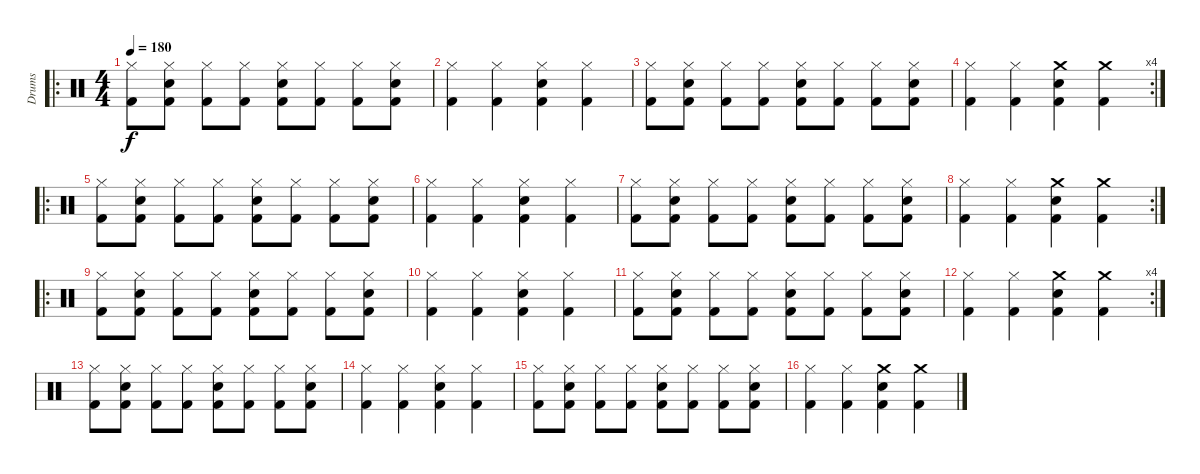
\track ("Drums" "Drums") {instrument percussion}
\staff {score}
\articulation defaults
\ro
\ts (4 4)
\tempo 180
\clef neutral
\ks c
("Hi-Hat (closed)" "Kick (hit) 2").8{dy f} ("Hi-Hat (closed)" "Snare (hit) 2" "Kick (hit) 2").8 ("Hi-Hat (closed)" "Kick (hit) 2").8 ("Hi-Hat (closed)" "Kick (hit) 2").8 ("Hi-Hat (closed)" "Snare (hit) 2" "Kick (hit) 2").8 ("Hi-Hat (closed)" "Kick (hit) 2").8 ("Hi-Hat (closed)" "Kick (hit) 2").8 ("Hi-Hat (closed)" "Snare (hit) 2" "Kick (hit) 2").8 |
("Hi-Hat (closed)" "Kick (hit) 2").4 ("Hi-Hat (closed)" "Kick (hit) 2").4 ("Hi-Hat (closed)" "Snare (hit) 2" "Kick (hit) 2").4 ("Hi-Hat (closed)" "Kick (hit) 2").4 |
("Hi-Hat (closed)" "Kick (hit) 2").8 ("Hi-Hat (closed)" "Snare (hit) 2" "Kick (hit) 2").8 ("Hi-Hat (closed)" "Kick (hit) 2").8 ("Hi-Hat (closed)" "Kick (hit) 2").8 ("Hi-Hat (closed)" "Snare (hit) 2" "Kick (hit) 2").8 ("Hi-Hat (closed)" "Kick (hit) 2").8 ("Hi-Hat (closed)" "Kick (hit) 2").8 ("Hi-Hat (closed)" "Snare (hit) 2" "Kick (hit) 2").8 |
\rc 4
("Hi-Hat (closed)" "Kick (hit) 2").4 ("Hi-Hat (closed)" "Kick (hit) 2").4 ("Crash medium (hit)" "Snare (hit) 2" "Kick (hit) 2").4 ("Crash medium (hit)" "Kick (hit) 2").4 |
\ro
("Hi-Hat (closed)" "Kick (hit) 2").8 ("Hi-Hat (closed)" "Snare (hit) 2" "Kick (hit) 2").8 ("Hi-Hat (closed)" "Kick (hit) 2").8 ("Hi-Hat (closed)" "Kick (hit) 2").8 ("Hi-Hat (closed)" "Snare (hit) 2" "Kick (hit) 2").8 ("Hi-Hat (closed)" "Kick (hit) 2").8 ("Hi-Hat (closed)" "Kick (hit) 2").8 ("Hi-Hat (closed)" "Snare (hit) 2" "Kick (hit) 2").8 |
("Hi-Hat (closed)" "Kick (hit) 2").4 ("Hi-Hat (closed)" "Kick (hit) 2").4 ("Hi-Hat (closed)" "Snare (hit) 2" "Kick (hit) 2").4 ("Hi-Hat (closed)" "Kick (hit) 2").4 |
("Hi-Hat (closed)" "Kick (hit) 2").8 ("Hi-Hat (closed)" "Snare (hit) 2" "Kick (hit) 2").8 ("Hi-Hat (closed)" "Kick (hit) 2").8 ("Hi-Hat (closed)" "Kick (hit) 2").8 ("Hi-Hat (closed)" "Snare (hit) 2" "Kick (hit) 2").8 ("Hi-Hat (closed)" "Kick (hit) 2").8 ("Hi-Hat (closed)" "Kick (hit) 2").8 ("Hi-Hat (closed)" "Snare (hit) 2" "Kick (hit) 2").8 |
\rc 2
("Hi-Hat (closed)" "Kick (hit) 2").4 ("Hi-Hat (closed)" "Kick (hit) 2").4 ("Crash medium (hit)" "Snare (hit) 2" "Kick (hit) 2").4 ("Crash medium (hit)" "Kick (hit) 2").4 |
\ro
("Hi-Hat (closed)" "Kick (hit) 2").8 ("Hi-Hat (closed)" "Snare (hit) 2" "Kick (hit) 2").8 ("Hi-Hat (closed)" "Kick (hit) 2").8 ("Hi-Hat (closed)" "Kick (hit) 2").8 ("Hi-Hat (closed)" "Snare (hit) 2" "Kick (hit) 2").8 ("Hi-Hat (closed)" "Kick (hit) 2").8 ("Hi-Hat (closed)" "Kick (hit) 2").8 ("Hi-Hat (closed)" "Snare (hit) 2" "Kick (hit) 2").8 |
("Hi-Hat (closed)" "Kick (hit) 2").4 ("Hi-Hat (closed)" "Kick (hit) 2").4 ("Hi-Hat (closed)" "Snare (hit) 2" "Kick (hit) 2").4 ("Hi-Hat (closed)" "Kick (hit) 2").4 |
("Hi-Hat (closed)" "Kick (hit) 2").8 ("Hi-Hat (closed)" "Snare (hit) 2" "Kick (hit) 2").8 ("Hi-Hat (closed)" "Kick (hit) 2").8 ("Hi-Hat (closed)" "Kick (hit) 2").8 ("Hi-Hat (closed)" "Snare (hit) 2" "Kick (hit) 2").8 ("Hi-Hat (closed)" "Kick (hit) 2").8 ("Hi-Hat (closed)" "Kick (hit) 2").8 ("Hi-Hat (closed)" "Snare (hit) 2" "Kick (hit) 2").8 |
\rc 4
("Hi-Hat (closed)" "Kick (hit) 2").4 ("Hi-Hat (closed)" "Kick (hit) 2").4 ("Crash medium (hit)" "Snare (hit) 2" "Kick (hit) 2").4 ("Crash medium (hit)" "Kick (hit) 2").4 |
("Hi-Hat (closed)" "Kick (hit) 2").8 ("Hi-Hat (closed)" "Snare (hit) 2" "Kick (hit) 2").8 ("Hi-Hat (closed)" "Kick (hit) 2").8 ("Hi-Hat (closed)" "Kick (hit) 2").8 ("Hi-Hat (closed)" "Snare (hit) 2" "Kick (hit) 2").8 ("Hi-Hat (closed)" "Kick (hit) 2").8 ("Hi-Hat (closed)" "Kick (hit) 2").8 ("Hi-Hat (closed)" "Snare (hit) 2" "Kick (hit) 2").8 |
("Hi-Hat (closed)" "Kick (hit) 2").4 ("Hi-Hat (closed)" "Kick (hit) 2").4 ("Hi-Hat (closed)" "Snare (hit) 2" "Kick (hit) 2").4 ("Hi-Hat (closed)" "Kick (hit) 2").4 |
("Hi-Hat (closed)" "Kick (hit) 2").8 ("Hi-Hat (closed)" "Snare (hit) 2" "Kick (hit) 2").8 ("Hi-Hat (closed)" "Kick (hit) 2").8 ("Hi-Hat (closed)" "Kick (hit) 2").8 ("Hi-Hat (closed)" "Snare (hit) 2" "Kick (hit) 2").8 ("Hi-Hat (closed)" "Kick (hit) 2").8 ("Hi-Hat (closed)" "Kick (hit) 2").8 ("Hi-Hat (closed)" "Snare (hit) 2" "Kick (hit) 2").8 |
("Hi-Hat (closed)" "Kick (hit) 2").4 ("Hi-Hat (closed)" "Kick (hit) 2").4 ("Crash medium (hit)" "Snare (hit) 2" "Kick (hit) 2").4 ("Crash medium (hit)" "Kick (hit) 2").4
